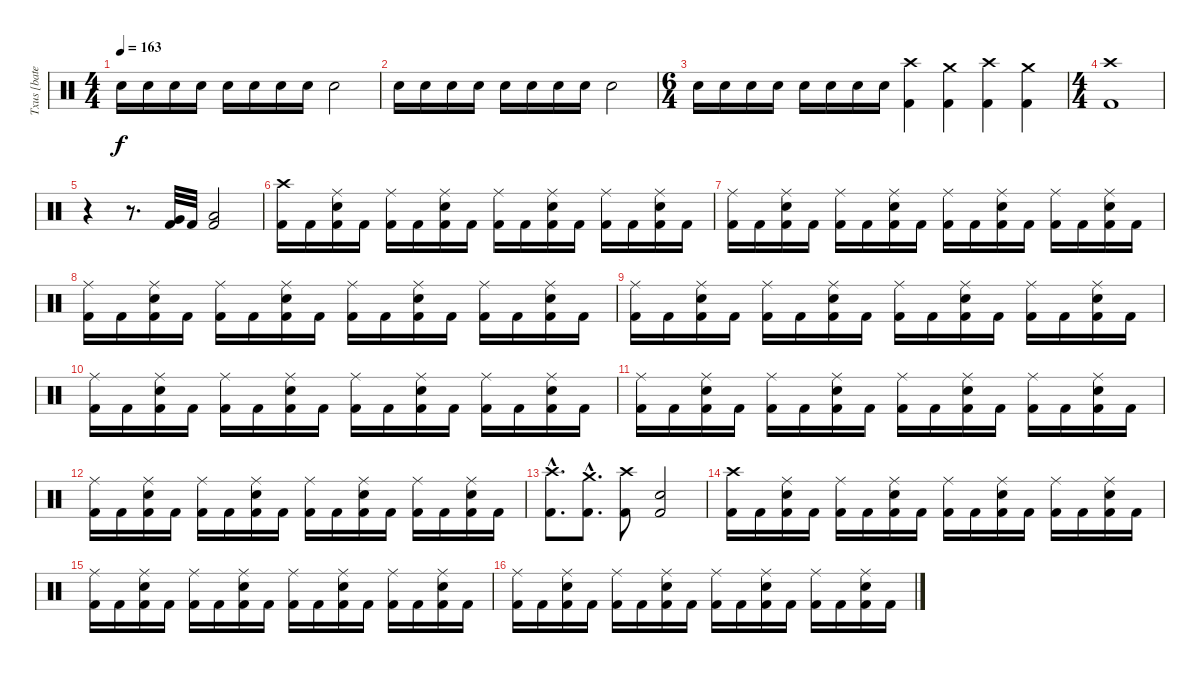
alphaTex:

\track ("Txus [bateria]" "Txus [bate") {instrument percussion}
\staff {score}
\articulation defaults
\ts (4 4)
\tempo 163
\clef neutral
\ks c "Snare (hit) 2".16{dy f} "Snare (hit) 2".16 "Snare (hit) 2".16 "Snare (hit) 2".16 "Snare (hit) 2".16 "Snare (hit) 2".16 "Snare (hit) 2".16 "Snare (hit) 2".16 "Snare (hit) 2".2
|
"Snare (hit) 2".16 "Snare (hit) 2".16 "Snare (hit) 2".16 "Snare (hit) 2".16 "Snare (hit) 2".16 "Snare (hit) 2".16 "Snare (hit) 2".16 "Snare (hit) 2".16 "Snare (hit) 2".2 |
\ts (6 4)
"Snare (hit) 2".16 "Snare (hit) 2".16 "Snare (hit) 2".16 "Snare (hit) 2".16 "Snare (hit) 2".16 "Snare (hit) 2".16 "Snare (hit) 2".16 "Snare (hit) 2".16 ("Crash high (hit)" "Kick (hit) 2").4 ("Crash medium (hit)" "Kick (hit) 2").4 ("Crash high (hit)" "Kick (hit) 2").4 ("Crash medium (hit)" "Kick (hit) 2").4 |
\ts (4 4)
("Crash high (hit)" "Kick (hit) 2").1 |
r.4 r.8{d} ("Very Low Tom (hit)" "Kick (hit) 2").32 "Kick (hit) 2".32 ("Low Floor Tom (hit)" "Kick (hit) 2").2 |
("Crash high (hit)" "Kick (hit) 2").16 "Kick (hit) 2".16 ("Ride (middle)" "Snare (hit) 2" "Kick (hit) 2").16 "Kick (hit) 2".16 ("Ride (middle)" "Kick (hit) 2").16 "Kick (hit) 2".16 ("Ride (middle)" "Snare (hit) 2" "Kick (hit) 2").16 "Kick (hit) 2".16 ("Ride (middle)" "Kick (hit) 2").16 "Kick (hit) 2".16 ("Ride (middle)" "Snare (hit) 2" "Kick (hit) 2").16 "Kick (hit) 2".16 ("Ride (middle)" "Kick (hit) 2").16 "Kick (hit) 2".16 ("Ride (middle)" "Snare (hit) 2" "Kick (hit) 2").16 "Kick (hit) 2".16 |
("Ride (middle)" "Kick (hit) 2").16 "Kick (hit) 2".16 ("Ride (middle)" "Snare (hit) 2" "Kick (hit) 2").16 "Kick (hit) 2".16 ("Ride (middle)" "Kick (hit) 2").16 "Kick (hit) 2".16 ("Ride (middle)" "Snare (hit) 2" "Kick (hit) 2").16 "Kick (hit) 2".16 ("Ride (middle)" "Kick (hit) 2").16 "Kick (hit) 2".16 ("Ride (middle)" "Snare (hit) 2" "Kick (hit) 2").16 "Kick (hit) 2".16 ("Ride (middle)" "Kick (hit) 2").16 "Kick (hit) 2".16 ("Ride (middle)" "Snare (hit) 2" "Kick (hit) 2").16 "Kick (hit) 2".16 |
("Ride (middle)" "Kick (hit) 2").16 "Kick (hit) 2".16 ("Ride (middle)" "Snare (hit) 2" "Kick (hit) 2").16 "Kick (hit) 2".16 ("Ride (middle)" "Kick (hit) 2").16 "Kick (hit) 2".16 ("Ride (middle)" "Snare (hit) 2" "Kick (hit) 2").16 "Kick (hit) 2".16 ("Ride (middle)" "Kick (hit) 2").16 "Kick (hit) 2".16 ("Ride (middle)" "Snare (hit) 2" "Kick (hit) 2").16 "Kick (hit) 2".16 ("Ride (middle)" "Kick (hit) 2").16 "Kick (hit) 2".16 ("Ride (middle)" "Snare (hit) 2" "Kick (hit) 2").16 "Kick (hit) 2".16 |
("Ride (middle)" "Kick (hit) 2").16 "Kick (hit) 2".16 ("Ride (middle)" "Snare (hit) 2" "Kick (hit) 2").16 "Kick (hit) 2".16 ("Ride (middle)" "Kick (hit) 2").16 "Kick (hit) 2".16 ("Ride (middle)" "Snare (hit) 2" "Kick (hit) 2").16 "Kick (hit) 2".16 ("Ride (middle)" "Kick (hit) 2").16 "Kick (hit) 2".16 ("Ride (middle)" "Snare (hit) 2" "Kick (hit) 2").16 "Kick (hit) 2".16 ("Ride (middle)" "Kick (hit) 2").16 "Kick (hit) 2".16 ("Ride (middle)" "Snare (hit) 2" "Kick (hit) 2").16 "Kick (hit) 2".16 |
("Ride (middle)" "Kick (hit) 2").16 "Kick (hit) 2".16 ("Ride (middle)" "Snare (hit) 2" "Kick (hit) 2").16 "Kick (hit) 2".16 ("Ride (middle)" "Kick (hit) 2").16 "Kick (hit) 2".16 ("Ride (middle)" "Snare (hit) 2" "Kick (hit) 2").16 "Kick (hit) 2".16 ("Ride (middle)" "Kick (hit) 2").16 "Kick (hit) 2".16 ("Ride (middle)" "Snare (hit) 2" "Kick (hit) 2").16 "Kick (hit) 2".16 ("Ride (middle)" "Kick (hit) 2").16 "Kick (hit) 2".16 ("Ride (middle)" "Snare (hit) 2" "Kick (hit) 2").16 "Kick (hit) 2".16 |
("Ride (middle)" "Kick (hit) 2").16 "Kick (hit) 2".16 ("Ride (middle)" "Snare (hit) 2" "Kick (hit) 2").16 "Kick (hit) 2".16 ("Ride (middle)" "Kick (hit) 2").16 "Kick (hit) 2".16 ("Ride (middle)" "Snare (hit) 2" "Kick (hit) 2").16 "Kick (hit) 2".16 ("Ride (middle)" "Kick (hit) 2").16 "Kick (hit) 2".16 ("Ride (middle)" "Snare (hit) 2" "Kick (hit) 2").16 "Kick (hit) 2".16 ("Ride (middle)" "Kick (hit) 2").16 "Kick (hit) 2".16 ("Ride (middle)" "Snare (hit) 2" "Kick (hit) 2").16 "Kick (hit) 2".16 |
("Ride (middle)" "Kick (hit) 2").16 "Kick (hit) 2".16 ("Ride (middle)" "Snare (hit) 2" "Kick (hit) 2").16 "Kick (hit) 2".16 ("Ride (middle)" "Kick (hit) 2").16 "Kick (hit) 2".16 ("Ride (middle)" "Snare (hit) 2" "Kick (hit) 2").16 "Kick (hit) 2".16 ("Ride (middle)" "Kick (hit) 2").16 "Kick (hit) 2".16 ("Ride (middle)" "Snare (hit) 2" "Kick (hit) 2").16 "Kick (hit) 2".16 ("Ride (middle)" "Kick (hit) 2").16 "Kick (hit) 2".16 ("Ride (middle)" "Snare (hit) 2" "Kick (hit) 2").16 "Kick (hit) 2".16 |
("Crash high (hit)"{hac} "Kick (hit) 2"{hac}).8{d} ("Crash medium (hit)"{hac} "Kick (hit) 2"{hac}).8{d} ("Crash high (hit)" "Kick (hit) 2").8 ("Snare (hit) 2" "Kick (hit) 2").2 |
("Crash high (hit)" "Kick (hit) 2").16 "Kick (hit) 2".16 ("Ride (middle)" "Snare (hit) 2" "Kick (hit) 2").16 "Kick (hit) 2".16 ("Ride (middle)" "Kick (hit) 2").16 "Kick (hit) 2".16 ("Ride (middle)" "Snare (hit) 2" "Kick (hit) 2").16 "Kick (hit) 2".16 ("Ride (middle)" "Kick (hit) 2").16 "Kick (hit) 2".16 ("Ride (middle)" "Snare (hit) 2" "Kick (hit) 2").16 "Kick (hit) 2".16 ("Ride (middle)" "Kick (hit) 2").16 "Kick (hit) 2".16 ("Ride (middle)" "Snare (hit) 2" "Kick (hit) 2").16 "Kick (hit) 2".16 |
("Ride (middle)" "Kick (hit) 2").16 "Kick (hit) 2".16 ("Ride (middle)" "Snare (hit) 2" "Kick (hit) 2").16 "Kick (hit) 2".16 ("Ride (middle)" "Kick (hit) 2").16 "Kick (hit) 2".16 ("Ride (middle)" "Snare (hit) 2" "Kick (hit) 2").16 "Kick (hit) 2".16 ("Ride (middle)" "Kick (hit) 2").16 "Kick (hit) 2".16 ("Ride (middle)" "Snare (hit) 2" "Kick (hit) 2").16 "Kick (hit) 2".16 ("Ride (middle)" "Kick (hit) 2").16 "Kick (hit) 2".16 ("Ride (middle)" "Snare (hit) 2" "Kick (hit) 2").16 "Kick (hit) 2".16 |
("Ride (middle)" "Kick (hit) 2").16 "Kick (hit) 2".16 ("Ride (middle)" "Snare (hit) 2" "Kick (hit) 2").16 "Kick (hit) 2".16 ("Ride (middle)" "Kick (hit) 2").16 "Kick (hit) 2".16 ("Ride (middle)" "Snare (hit) 2" "Kick (hit) 2").16 "Kick (hit) 2".16 ("Ride (middle)" "Kick (hit) 2").16 "Kick (hit) 2".16 ("Ride (middle)" "Snare (hit) 2" "Kick (hit) 2").16 "Kick (hit) 2".16 ("Ride (middle)" "Kick (hit) 2").16 "Kick (hit) 2".16 ("Ride (middle)" "Snare (hit) 2" "Kick (hit) 2").16 "Kick (hit) 2".16
